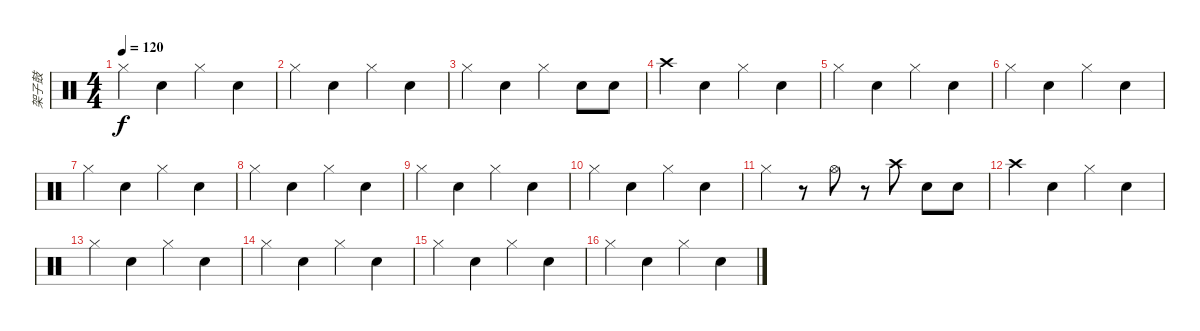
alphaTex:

\track ("架子鼓" "架子鼓") {instrument percussion}
\staff {score}
\articulation defaults
\ts (4 4)
\tempo 120
\clef neutral
\ks c "Hi-Hat (closed)".4{dy f} "Snare (hit) 2".4 "Hi-Hat (closed)".4 "Snare (hit) 2".4
|
"Hi-Hat (closed)".4 "Snare (hit) 2".4 "Hi-Hat (closed)".4 "Snare (hit) 2".4 |
"Hi-Hat (closed)".4 "Snare (hit) 2".4 "Hi-Hat (closed)".4 "Snare (hit) 2".8 "Snare (hit) 2".8 |
"Crash high (hit)".4 "Snare (hit) 2".4 "Hi-Hat (closed)".4 "Snare (hit) 2".4 |
"Hi-Hat (closed)".4 "Snare (hit) 2".4 "Hi-Hat (closed)".4 "Snare (hit) 2".4 |
"Hi-Hat (closed)".4 "Snare (hit) 2".4 "Hi-Hat (closed)".4 "Snare (hit) 2".4 |
"Hi-Hat (closed)".4 "Snare (hit) 2".4 "Hi-Hat (closed)".4 "Snare (hit) 2".4 |
"Hi-Hat (closed)".4 "Snare (hit) 2".4 "Hi-Hat (closed)".4 "Snare (hit) 2".4 |
"Hi-Hat (closed)".4 "Snare (hit) 2".4 "Hi-Hat (closed)".4 "Snare (hit) 2".4 |
"Hi-Hat (closed)".4 "Snare (hit) 2".4 "Hi-Hat (closed)".4 "Snare (hit) 2".4 |
"Hi-Hat (closed)".4 r.8 "Hi-Hat (open)".8 r.8 "Crash high (hit)".8 "Snare (hit) 2".8 "Snare (hit) 2".8 |
"Crash high (hit)".4 "Snare (hit) 2".4 "Hi-Hat (closed)".4 "Snare (hit) 2".4 |
"Hi-Hat (closed)".4 "Snare (hit) 2".4 "Hi-Hat (closed)".4 "Snare (hit) 2".4 |
"Hi-Hat (closed)".4 "Snare (hit) 2".4 "Hi-Hat (closed)".4 "Snare (hit) 2".4 |
"Hi-Hat (closed)".4 "Snare (hit) 2".4 "Hi-Hat (closed)".4 "Snare (hit) 2".4 |
"Hi-Hat (closed)".4 "Snare (hit) 2".4 "Hi-Hat (closed)".4 "Snare (hit) 2".4
